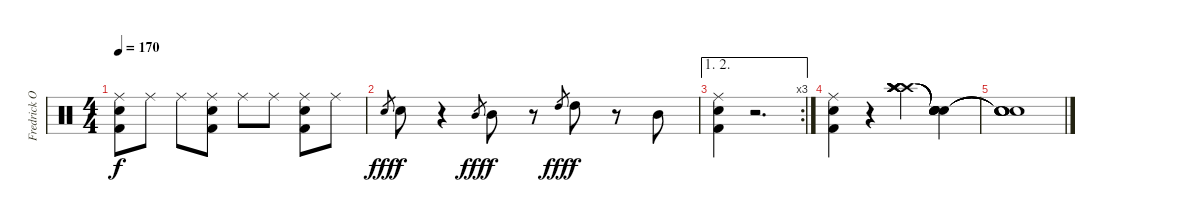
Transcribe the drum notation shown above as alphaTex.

\track ("Fredrick Oscarsson (Drums)" "Fredrick O") {instrument percussion}
\staff {score}
\articulation defaults
\ts (4 4)
\tempo 170
\clef neutral
\ks c
("Ride (middle)" "Snare (hit) 2" "Kick (hit) 2").8{dy f} "Ride (middle)".8 "Ride (middle)".8 ("Ride (middle)" "Snare (hit) 2" "Kick (hit) 2").8 "Ride (middle)".8 "Ride (middle)".8 ("Ride (middle)" "Snare (hit) 2" "Kick (hit) 2").8 "Ride (middle)".8 |
"Snare (hit) 2".8{gr dy fff} "Snare (hit) 2".8{dy f} r.4 "Mid Tom (hit)".8{gr dy fff} "Mid Tom (hit)".8{dy f} r.8 "High Tom (hit)".8{gr dy fff} "High Tom (hit)".8{dy f} r.8 "Mid Tom (hit)".8 |
\ae (1 2)
\rc 3
("Ride (middle)" "Snare (hit) 2" "Kick (hit) 2").4 r.2{d} |
("Ride (middle)" "Snare (hit) 2" "Kick (hit) 2").4 r.4 ("Crash high (hit)" "Crash high (hit)" "Crash high (hit)" "Crash high (hit)" "Crash high (hit)" "Crash high (hit)").4 ("Snare (hit)"{t} "Snare (hit)"{t} "Snare (hit)"{t} "Snare (hit)"{t} "Snare (hit)"{t}).4 |
("Snare (hit)"{t} "Snare (hit)"{t} "Snare (hit)"{t} "Snare (hit)"{t} "Snare (hit)"{t}).1
